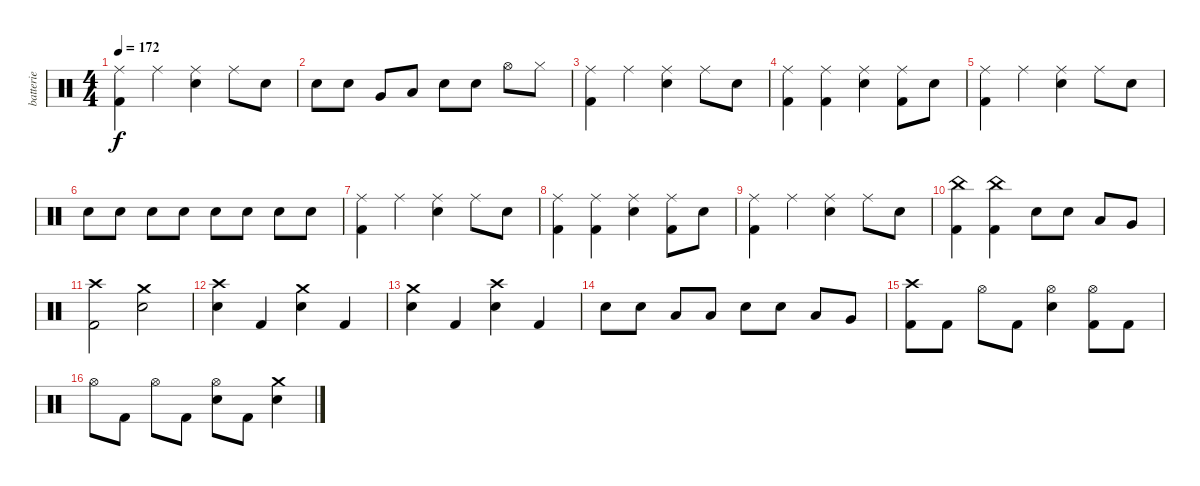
\track ("batterie" "batterie") {instrument percussion}
\staff {score}
\articulation defaults
\ts (4 4)
\tempo 172
\clef neutral
\ks c
("Ride (middle)" "Kick (hit) 2").4{dy f} "Ride (middle)".4 ("Ride (middle)" "Electric Snare (hit)").4 "Ride (middle)".8 "Electric Snare (hit)".8 |
"Electric Snare (hit)".8 "Electric Snare (hit)".8 "Very Low Tom (hit)".8 "Low Tom (hit)".8 "Electric Snare (hit)".8 "Electric Snare (hit)".8 "Hi-Hat (open)".8 "Hi-Hat (closed)".8 |
("Ride (middle)" "Kick (hit) 2").4 "Ride (middle)".4 ("Electric Snare (hit)" "Ride (middle)").4 "Ride (middle)".8 "Electric Snare (hit)".8 |
("Kick (hit) 2" "Ride (middle)").4 ("Kick (hit) 2" "Ride (middle)").4 ("Ride (middle)" "Electric Snare (hit)").4 ("Ride (middle)" "Kick (hit) 2").8 "Electric Snare (hit)".8 |
("Ride (middle)" "Kick (hit) 2").4 "Ride (middle)".4 ("Ride (middle)" "Electric Snare (hit)").4 "Ride (middle)".8 "Electric Snare (hit)".8 |
"Electric Snare (hit)".8 "Electric Snare (hit)".8 "Electric Snare (hit)".8 "Electric Snare (hit)".8 "Electric Snare (hit)".8 "Electric Snare (hit)".8 "Electric Snare (hit)".8 "Electric Snare (hit)".8 |
("Ride (middle)" "Kick (hit) 2").4 "Ride (middle)".4 ("Electric Snare (hit)" "Ride (middle)").4 "Ride (middle)".8 "Electric Snare (hit)".8 |
("Kick (hit) 2" "Ride (middle)").4 ("Kick (hit) 2" "Ride (middle)").4 ("Ride (middle)" "Electric Snare (hit)").4 ("Ride (middle)" "Kick (hit) 2").8 "Electric Snare (hit)".8 |
("Ride (middle)" "Kick (hit) 2").4 "Ride (middle)".4 ("Ride (middle)" "Electric Snare (hit)").4 "Ride (middle)".8 "Electric Snare (hit)".8 |
("China (hit)" "Kick (hit) 2").4 ("China (hit)" "Kick (hit) 2").4 "Electric Snare (hit)".8 "Electric Snare (hit)".8 "Low Tom (hit)".8 "Very Low Tom (hit)".8 |
("Crash high (hit)" "Kick (hit) 2").2 ("Crash medium (hit)" "Electric Snare (hit)").2 |
("Crash high (hit)" "Electric Snare (hit)").4 "Kick (hit) 2".4 ("Electric Snare (hit)" "Crash medium (hit)").4 "Kick (hit) 2".4 |
("Electric Snare (hit)" "Crash medium (hit)").4 "Kick (hit) 2".4 ("Electric Snare (hit)" "Crash high (hit)").4 "Kick (hit) 2".4 |
"Electric Snare (hit)".8 "Electric Snare (hit)".8 "Low Tom (hit)".8 "Low Tom (hit)".8 "Electric Snare (hit)".8 "Electric Snare (hit)".8 "Low Tom (hit)".8 "Very Low Tom (hit)".8 |
("Crash high (hit)" "Kick (hit) 2").8 "Kick (hit) 2".8 "Hi-Hat (open)".8 "Kick (hit) 2".8 ("Hi-Hat (open)" "Electric Snare (hit)").4 ("Hi-Hat (open)" "Kick (hit) 2").8 "Kick (hit) 2".8 |
"Hi-Hat (open)".8 "Kick (hit) 2".8 "Hi-Hat (open)".8 "Kick (hit) 2".8 ("Hi-Hat (open)" "Electric Snare (hit)").8 "Kick (hit) 2".8 ("Electric Snare (hit)" "Crash medium (hit)").4
